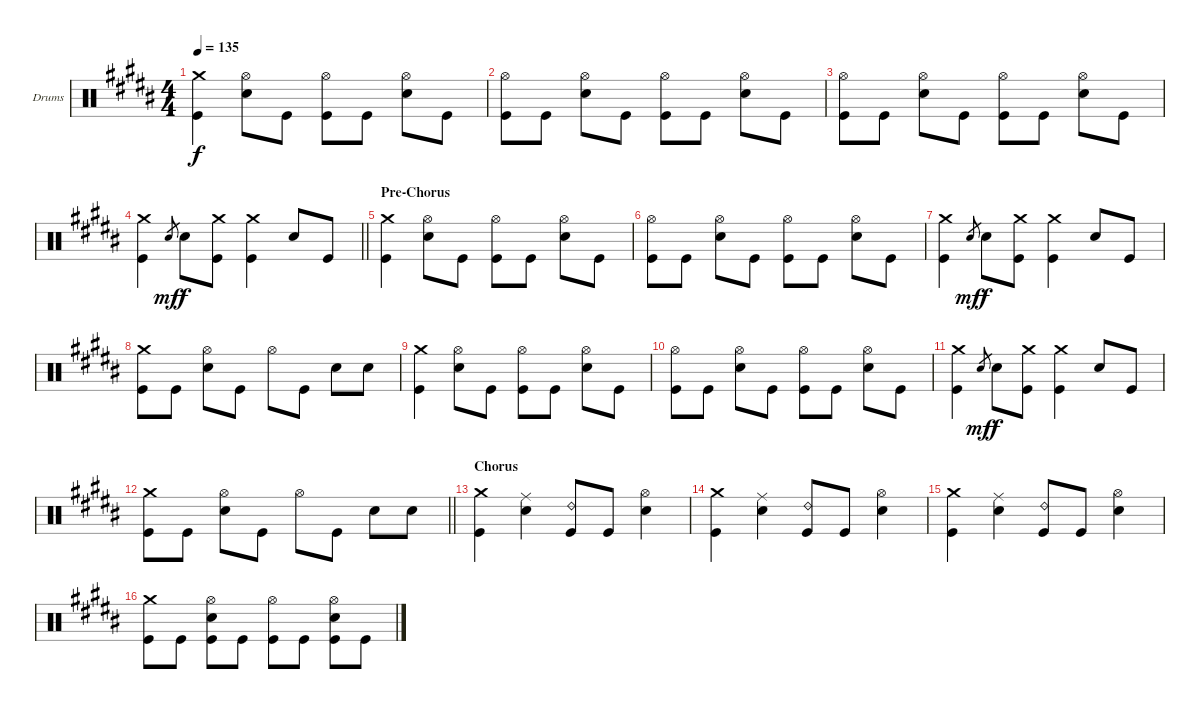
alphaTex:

\bracketExtendMode groupsimilarinstruments
\firstSystemTrackNameOrientation horizontal
\otherSystemsTrackNameOrientation horizontal
\track ("Drumkit" "Drums") {multiBarRest instrument percussion}
\staff {score}
\articulation defaults
\ts (4 4)
\tempo 135
\clef neutral
\ks b
("Crash medium (hit)" "Kick (hit)").4{dy f} ("Snare (hit) 2" "Hi-Hat (open)").8 "Kick (hit)".8 ("Hi-Hat (open)" "Kick (hit)").8 "Kick (hit)".8 ("Snare (hit) 2" "Hi-Hat (open)").8 "Kick (hit)".8 |
("Hi-Hat (open)" "Kick (hit)").8 "Kick (hit)".8 ("Snare (hit) 2" "Hi-Hat (open)").8 "Kick (hit)".8 ("Hi-Hat (open)" "Kick (hit)").8 "Kick (hit)".8 ("Snare (hit) 2" "Hi-Hat (open)").8 "Kick (hit)".8 |
("Hi-Hat (open)" "Kick (hit)").8 "Kick (hit)".8 ("Snare (hit) 2" "Hi-Hat (open)").8 "Kick (hit)".8 ("Hi-Hat (open)" "Kick (hit)").8 "Kick (hit)".8 ("Snare (hit) 2" "Hi-Hat (open)").8 "Kick (hit)".8 |
\barLineRight lightlight
("Crash medium (hit)" "Kick (hit)").4 "Snare (hit) 2".8{gr dy mf} "Snare (hit) 2".8{dy f} ("Crash medium (hit)" "Kick (hit)").8 ("Crash medium (hit)" "Kick (hit)").4 "Snare (hit) 2".8 "Kick (hit)".8 |
\section ("" "Pre-Chorus")
("Crash medium (hit)" "Kick (hit)").4 ("Snare (hit) 2" "Hi-Hat (open)").8 "Kick (hit)".8 ("Hi-Hat (open)" "Kick (hit)").8 "Kick (hit)".8 ("Snare (hit) 2" "Hi-Hat (open)").8 "Kick (hit)".8 |
("Hi-Hat (open)" "Kick (hit)").8 "Kick (hit)".8 ("Snare (hit) 2" "Hi-Hat (open)").8 "Kick (hit)".8 ("Hi-Hat (open)" "Kick (hit)").8 "Kick (hit)".8 ("Snare (hit) 2" "Hi-Hat (open)").8 "Kick (hit)".8 |
("Crash medium (hit)" "Kick (hit)").4 "Snare (hit) 2".8{gr dy mf} "Snare (hit) 2".8{dy f} ("Crash medium (hit)" "Kick (hit)").8 ("Crash medium (hit)" "Kick (hit)").4 "Snare (hit) 2".8 "Kick (hit)".8 |
("Crash medium (hit)" "Kick (hit)").8 "Kick (hit)".8 ("Hi-Hat (open)" "Snare (hit) 2").8 "Kick (hit)".8 "Hi-Hat (open)".8 "Kick (hit)".8 "Snare (hit) 2".8 "Snare (hit) 2".8 |
("Crash medium (hit)" "Kick (hit)").4 ("Snare (hit) 2" "Hi-Hat (open)").8 "Kick (hit)".8 ("Hi-Hat (open)" "Kick (hit)").8 "Kick (hit)".8 ("Snare (hit) 2" "Hi-Hat (open)").8 "Kick (hit)".8 |
("Hi-Hat (open)" "Kick (hit)").8 "Kick (hit)".8 ("Snare (hit) 2" "Hi-Hat (open)").8 "Kick (hit)".8 ("Hi-Hat (open)" "Kick (hit)").8 "Kick (hit)".8 ("Snare (hit) 2" "Hi-Hat (open)").8 "Kick (hit)".8 |
("Crash medium (hit)" "Kick (hit)").4 "Snare (hit) 2".8{gr dy mf} "Snare (hit) 2".8{dy f} ("Crash medium (hit)" "Kick (hit)").8 ("Crash medium (hit)" "Kick (hit)").4 "Snare (hit) 2".8 "Kick (hit)".8 |
\barLineRight lightlight
("Crash medium (hit)" "Kick (hit)").8 "Kick (hit)".8 ("Hi-Hat (open)" "Snare (hit) 2").8 "Kick (hit)".8 "Hi-Hat (open)".8 "Kick (hit)".8 "Snare (hit) 2".8 "Snare (hit) 2".8 |
\section ("" "Chorus")
("Crash medium (hit)" "Kick (hit)").4 ("Ride (middle)" "Snare (hit) 2").4 ("Ride (bell) 2" "Kick (hit)").8 "Kick (hit)".8 ("Hi-Hat (open)" "Snare (hit) 2").4 |
("Crash medium (hit)" "Kick (hit)").4 ("Ride (middle)" "Snare (hit) 2").4 ("Ride (bell) 2" "Kick (hit)").8 "Kick (hit)".8 ("Hi-Hat (open)" "Snare (hit) 2").4 |
("Crash medium (hit)" "Kick (hit)").4 ("Ride (middle)" "Snare (hit) 2").4 ("Ride (bell) 2" "Kick (hit)").8 "Kick (hit)".8 ("Hi-Hat (open)" "Snare (hit) 2").4 |
("Crash medium (hit)" "Kick (hit)").8 "Kick (hit)".8 ("Hi-Hat (open)" "Snare (hit) 2" "Kick (hit)").8 "Kick (hit)".8 ("Hi-Hat (open)" "Kick (hit)").8 "Kick (hit)".8 ("Hi-Hat (open)" "Snare (hit) 2" "Kick (hit)").8 "Kick (hit)".8
